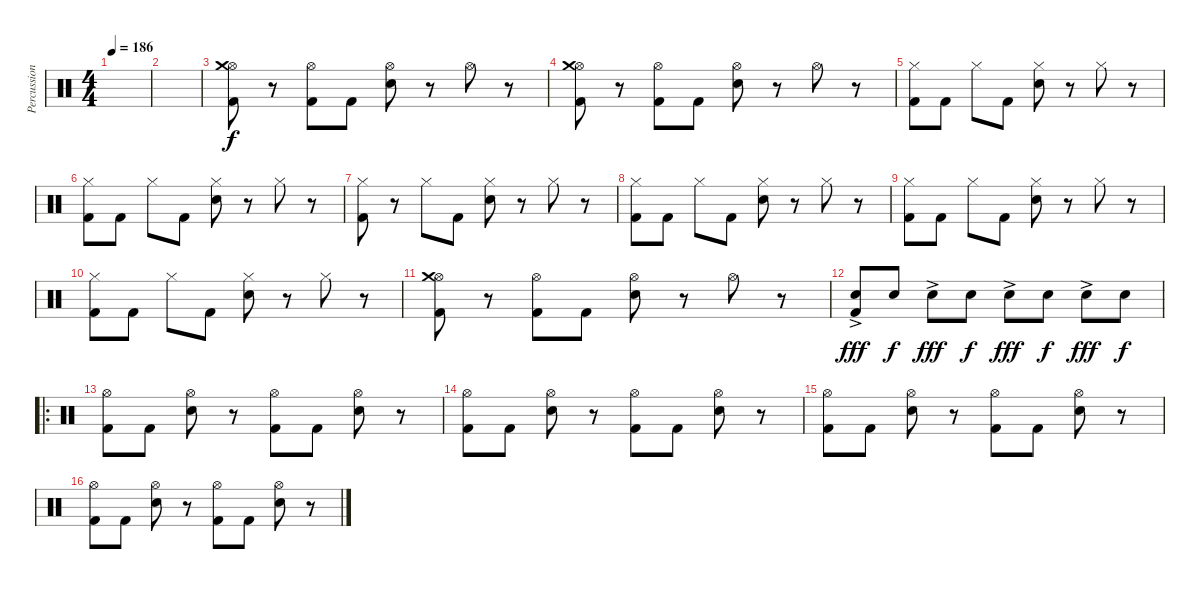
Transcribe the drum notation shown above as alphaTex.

\track ("Percussion" "Percussion") {instrument percussion}
\staff {score}
\articulation defaults
\ts (4 4)
\tempo 186
\clef neutral
\ks c
|
|
("Kick (hit) 2" "Hi-Hat (open)" "Crash medium (hit)").8 r.8 ("Kick (hit) 2" "Hi-Hat (open)").8 "Kick (hit) 2".8 ("Electric Snare (hit)" "Hi-Hat (open)").8 r.8 "Hi-Hat (open)".8 r.8 |
("Kick (hit) 2" "Hi-Hat (open)" "Crash medium (hit)").8 r.8 ("Kick (hit) 2" "Hi-Hat (open)").8 "Kick (hit) 2".8 ("Electric Snare (hit)" "Hi-Hat (open)").8 r.8 "Hi-Hat (open)".8 r.8 |
("Kick (hit) 2" "Hi-Hat (closed)").8 "Kick (hit) 2".8 "Hi-Hat (closed)".8 "Kick (hit) 2".8 ("Electric Snare (hit)" "Hi-Hat (closed)").8 r.8 "Hi-Hat (closed)".8 r.8 |
("Kick (hit) 2" "Hi-Hat (closed)").8 "Kick (hit) 2".8 "Hi-Hat (closed)".8 "Kick (hit) 2".8 ("Electric Snare (hit)" "Hi-Hat (closed)").8 r.8 "Hi-Hat (closed)".8 r.8 |
("Kick (hit) 2" "Hi-Hat (closed)").8 r.8 "Hi-Hat (closed)".8 "Kick (hit) 2".8 ("Electric Snare (hit)" "Hi-Hat (closed)").8 r.8 "Hi-Hat (closed)".8 r.8 |
("Kick (hit) 2" "Hi-Hat (closed)").8 "Kick (hit) 2".8 "Hi-Hat (closed)".8 "Kick (hit) 2".8 ("Electric Snare (hit)" "Hi-Hat (closed)").8 r.8 "Hi-Hat (closed)".8 r.8 |
("Kick (hit) 2" "Hi-Hat (closed)").8 "Kick (hit) 2".8 "Hi-Hat (closed)".8 "Kick (hit) 2".8 ("Electric Snare (hit)" "Hi-Hat (closed)").8 r.8 "Hi-Hat (closed)".8 r.8 |
("Kick (hit) 2" "Hi-Hat (closed)").8 "Kick (hit) 2".8 "Hi-Hat (closed)".8 "Kick (hit) 2".8 ("Electric Snare (hit)" "Hi-Hat (closed)").8 r.8 "Hi-Hat (closed)".8 r.8 |
("Kick (hit) 2" "Hi-Hat (open)" "Crash medium (hit)").8 r.8 ("Kick (hit) 2" "Hi-Hat (open)").8 "Kick (hit) 2".8 ("Electric Snare (hit)" "Hi-Hat (open)").8 r.8 "Hi-Hat (open)".8 r.8 |
("Kick (hit) 2" "Electric Snare (hit)"{ac}).8{dy fff} "Electric Snare (hit)".8{dy f} "Electric Snare (hit)"{ac}.8{dy fff} "Electric Snare (hit)".8{dy f} "Electric Snare (hit)"{ac}.8{dy fff} "Electric Snare (hit)".8{dy f} "Electric Snare (hit)"{ac}.8{dy fff} "Electric Snare (hit)".8{dy f} |
\ro
("Kick (hit) 2" "Hi-Hat (open)").8 "Kick (hit) 2".8 ("Electric Snare (hit)" "Hi-Hat (open)").8 r.8 ("Kick (hit) 2" "Hi-Hat (open)").8 "Kick (hit) 2".8 ("Electric Snare (hit)" "Hi-Hat (open)").8 r.8 |
("Kick (hit) 2" "Hi-Hat (open)").8 "Kick (hit) 2".8 ("Electric Snare (hit)" "Hi-Hat (open)").8 r.8 ("Kick (hit) 2" "Hi-Hat (open)").8 "Kick (hit) 2".8 ("Electric Snare (hit)" "Hi-Hat (open)").8 r.8 |
("Kick (hit) 2" "Hi-Hat (open)").8 "Kick (hit) 2".8 ("Electric Snare (hit)" "Hi-Hat (open)").8 r.8 ("Kick (hit) 2" "Hi-Hat (open)").8 "Kick (hit) 2".8 ("Electric Snare (hit)" "Hi-Hat (open)").8 r.8 |
("Kick (hit) 2" "Hi-Hat (open)").8 "Kick (hit) 2".8 ("Electric Snare (hit)" "Hi-Hat (open)").8 r.8 ("Kick (hit) 2" "Hi-Hat (open)").8 "Kick (hit) 2".8 ("Electric Snare (hit)" "Hi-Hat (open)").8 r.8
